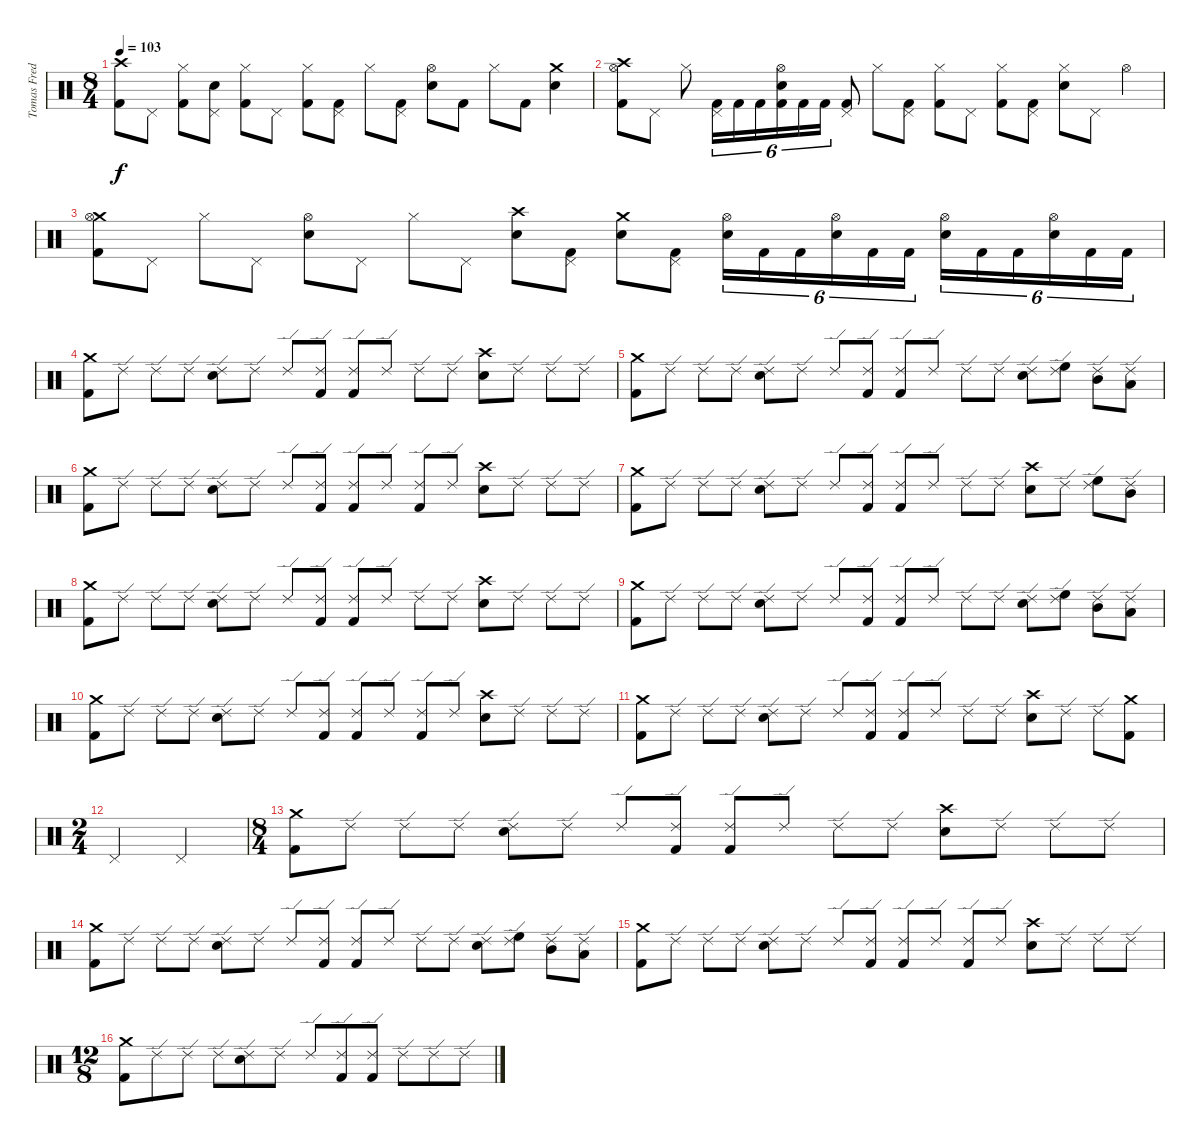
\track ("Tomas Fredén - drums  " "Tomas Fred") {instrument percussion}
\staff {score}
\articulation defaults
\ts (8 4)
\tempo 103
\clef neutral
\ks c
("Crash high (hit)" "Kick (hit) 2").8{dy f} "Pedal Hi-Hat (hit)".8 ("Hi-Hat (closed)" "Kick (hit) 2").8 ("Snare (hit) 2" "Pedal Hi-Hat (hit)").8 ("Hi-Hat (closed)" "Kick (hit) 2").8 "Pedal Hi-Hat (hit)".8 ("Hi-Hat (closed)" "Kick (hit) 2").8 ("Kick (hit) 2" "Pedal Hi-Hat (hit)").8 "Hi-Hat (closed)".8 ("Pedal Hi-Hat (hit)" "Kick (hit) 2").8 ("Hi-Hat (open)" "Snare (hit) 2").8 "Kick (hit) 2".8 "Hi-Hat (closed)".8 "Kick (hit) 2".8 ("Crash medium (hit)" "Snare (hit) 2").4 |
("Crash high (hit)" "Hi-Hat (open)" "Kick (hit) 2").8 "Pedal Hi-Hat (hit)".8 "Hi-Hat (closed)".8 ("Pedal Hi-Hat (hit)" "Kick (hit) 2").16{tu (6 4)} "Kick (hit) 2".16{tu (6 4)} "Kick (hit) 2".16{tu (6 4)} ("Hi-Hat (open)" "Snare (hit) 2" "Kick (hit) 2").16{tu (6 4)} "Kick (hit) 2".16{tu (6 4)} "Kick (hit) 2".16{tu (6 4)} ("Pedal Hi-Hat (hit)" "Kick (hit) 2").8 "Hi-Hat (closed)".8 ("Kick (hit) 2" "Pedal Hi-Hat (hit)").8 ("Hi-Hat (closed)" "Kick (hit) 2").8 "Pedal Hi-Hat (hit)".8 ("Hi-Hat (closed)" "Kick (hit) 2").8 ("Kick (hit) 2" "Pedal Hi-Hat (hit)").8 ("Hi-Hat (closed)" "Electric Snare (hit)").8 "Pedal Hi-Hat (hit)".8 "Hi-Hat (open)".4 |
("Crash medium (hit)" "Hi-Hat (open)" "Kick (hit) 2").8 "Pedal Hi-Hat (hit)".8 "Hi-Hat (closed)".8 "Pedal Hi-Hat (hit)".8 ("Hi-Hat (open)" "Snare (hit) 2").8 "Pedal Hi-Hat (hit)".8 "Hi-Hat (closed)".8 "Pedal Hi-Hat (hit)".8 ("Crash high (hit)" "Snare (hit) 2").8 ("Kick (hit) 2" "Pedal Hi-Hat (hit)").8 ("Crash medium (hit)" "Snare (hit) 2").8 ("Kick (hit) 2" "Pedal Hi-Hat (hit)").8 ("Hi-Hat (open)" "Snare (hit) 2").16{tu (6 4)} "Kick (hit) 2".16{tu (6 4)} "Kick (hit) 2".16{tu (6 4)} ("Hi-Hat (open)" "Snare (hit) 2").16{tu (6 4)} "Kick (hit) 2".16{tu (6 4)} "Kick (hit) 2".16{tu (6 4)} ("Hi-Hat (open)" "Snare (hit) 2").16{tu (6 4)} "Kick (hit) 2".16{tu (6 4)} "Kick (hit) 2".16{tu (6 4)} ("Hi-Hat (open)" "Snare (hit) 2").16{tu (6 4)} "Kick (hit) 2".16{tu (6 4)} "Kick (hit) 2".16{tu (6 4)} |
("Crash medium (hit)" "Kick (hit) 2").8 "Ride (edge) 2".8 "Ride (edge) 2".8 "Ride (edge) 2".8 ("Ride (edge) 2" "Snare (hit) 2").8 "Ride (edge) 2".8 "Ride (edge) 2".8 ("Ride (edge) 2" "Kick (hit) 2").8 ("Ride (edge) 2" "Kick (hit) 2").8 "Ride (edge) 2".8 "Ride (edge) 2".8 "Ride (edge) 2".8 ("Crash high (hit)" "Snare (hit) 2").8 "Ride (edge) 2".8 "Ride (edge) 2".8 "Ride (edge) 2".8 |
("Crash medium (hit)" "Kick (hit) 2").8 "Ride (edge) 2".8 "Ride (edge) 2".8 "Ride (edge) 2".8 ("Ride (edge) 2" "Snare (hit) 2").8 "Ride (edge) 2".8 "Ride (edge) 2".8 ("Ride (edge) 2" "Kick (hit) 2").8 ("Ride (edge) 2" "Kick (hit) 2").8 "Ride (edge) 2".8 "Ride (edge) 2".8 "Ride (edge) 2".8 ("Ride (edge) 2" "Snare (hit) 2").8 ("Ride (edge) 2" "High Floor Tom (hit)").8 ("Ride (edge) 2" "Mid Tom (hit)").8 ("Ride (edge) 2" "Low Tom (hit)").8 |
("Crash medium (hit)" "Kick (hit) 2").8 "Ride (edge) 2".8 "Ride (edge) 2".8 "Ride (edge) 2".8 ("Ride (edge) 2" "Snare (hit) 2").8 "Ride (edge) 2".8 "Ride (edge) 2".8 ("Ride (edge) 2" "Kick (hit) 2").8 ("Ride (edge) 2" "Kick (hit) 2").8 "Ride (edge) 2".8 ("Ride (edge) 2" "Kick (hit) 2").8 "Ride (edge) 2".8 ("Crash high (hit)" "Snare (hit) 2").8 "Ride (edge) 2".8 "Ride (edge) 2".8 "Ride (edge) 2".8 |
("Crash medium (hit)" "Kick (hit) 2").8 "Ride (edge) 2".8 "Ride (edge) 2".8 "Ride (edge) 2".8 ("Ride (edge) 2" "Snare (hit) 2").8 "Ride (edge) 2".8 "Ride (edge) 2".8 ("Ride (edge) 2" "Kick (hit) 2").8 ("Ride (edge) 2" "Kick (hit) 2").8 "Ride (edge) 2".8 "Ride (edge) 2".8 "Ride (edge) 2".8 ("Crash high (hit)" "Snare (hit) 2").8 "Ride (edge) 2".8 ("Ride (edge) 2" "High Floor Tom (hit)").8 ("Ride (edge) 2" "Mid Tom (hit)").8 |
("Crash medium (hit)" "Kick (hit) 2").8 "Ride (edge) 2".8 "Ride (edge) 2".8 "Ride (edge) 2".8 ("Ride (edge) 2" "Snare (hit) 2").8 "Ride (edge) 2".8 "Ride (edge) 2".8 ("Ride (edge) 2" "Kick (hit) 2").8 ("Ride (edge) 2" "Kick (hit) 2").8 "Ride (edge) 2".8 "Ride (edge) 2".8 "Ride (edge) 2".8 ("Crash high (hit)" "Snare (hit) 2").8 "Ride (edge) 2".8 "Ride (edge) 2".8 "Ride (edge) 2".8 |
("Crash medium (hit)" "Kick (hit) 2").8 "Ride (edge) 2".8 "Ride (edge) 2".8 "Ride (edge) 2".8 ("Ride (edge) 2" "Snare (hit) 2").8 "Ride (edge) 2".8 "Ride (edge) 2".8 ("Ride (edge) 2" "Kick (hit) 2").8 ("Ride (edge) 2" "Kick (hit) 2").8 "Ride (edge) 2".8 "Ride (edge) 2".8 "Ride (edge) 2".8 ("Ride (edge) 2" "Snare (hit) 2").8 ("Ride (edge) 2" "High Floor Tom (hit)").8 ("Ride (edge) 2" "Mid Tom (hit)").8 ("Ride (edge) 2" "Low Tom (hit)").8 |
("Crash medium (hit)" "Kick (hit) 2").8 "Ride (edge) 2".8 "Ride (edge) 2".8 "Ride (edge) 2".8 ("Ride (edge) 2" "Snare (hit) 2").8 "Ride (edge) 2".8 "Ride (edge) 2".8 ("Ride (edge) 2" "Kick (hit) 2").8 ("Ride (edge) 2" "Kick (hit) 2").8 "Ride (edge) 2".8 ("Ride (edge) 2" "Kick (hit) 2").8 "Ride (edge) 2".8 ("Crash high (hit)" "Snare (hit) 2").8 "Ride (edge) 2".8 "Ride (edge) 2".8 "Ride (edge) 2".8 |
("Crash medium (hit)" "Kick (hit) 2").8 "Ride (edge) 2".8 "Ride (edge) 2".8 "Ride (edge) 2".8 ("Ride (edge) 2" "Snare (hit) 2").8 "Ride (edge) 2".8 "Ride (edge) 2".8 ("Ride (edge) 2" "Kick (hit) 2").8 ("Ride (edge) 2" "Kick (hit) 2").8 "Ride (edge) 2".8 "Ride (edge) 2".8 "Ride (edge) 2".8 ("Crash high (hit)" "Snare (hit) 2").8 "Ride (edge) 2".8 "Ride (edge) 2".8 ("Crash medium (hit)" "Kick (hit) 2").8 |
\ts (2 4)
"Pedal Hi-Hat (hit)".4 "Pedal Hi-Hat (hit)".4 |
\ts (8 4)
("Crash medium (hit)" "Kick (hit) 2").8 "Ride (edge) 2".8 "Ride (edge) 2".8 "Ride (edge) 2".8 ("Ride (edge) 2" "Snare (hit) 2").8 "Ride (edge) 2".8 "Ride (edge) 2".8 ("Ride (edge) 2" "Kick (hit) 2").8 ("Ride (edge) 2" "Kick (hit) 2").8 "Ride (edge) 2".8 "Ride (edge) 2".8 "Ride (edge) 2".8 ("Crash high (hit)" "Snare (hit) 2").8 "Ride (edge) 2".8 "Ride (edge) 2".8 "Ride (edge) 2".8 |
("Crash medium (hit)" "Kick (hit) 2").8 "Ride (edge) 2".8 "Ride (edge) 2".8 "Ride (edge) 2".8 ("Ride (edge) 2" "Snare (hit) 2").8 "Ride (edge) 2".8 "Ride (edge) 2".8 ("Ride (edge) 2" "Kick (hit) 2").8 ("Ride (edge) 2" "Kick (hit) 2").8 "Ride (edge) 2".8 "Ride (edge) 2".8 "Ride (edge) 2".8 ("Ride (edge) 2" "Snare (hit) 2").8 ("Ride (edge) 2" "High Floor Tom (hit)").8 ("Ride (edge) 2" "Mid Tom (hit)").8 ("Ride (edge) 2" "Low Tom (hit)").8 |
("Crash medium (hit)" "Kick (hit) 2").8 "Ride (edge) 2".8 "Ride (edge) 2".8 "Ride (edge) 2".8 ("Ride (edge) 2" "Snare (hit) 2").8 "Ride (edge) 2".8 "Ride (edge) 2".8 ("Ride (edge) 2" "Kick (hit) 2").8 ("Ride (edge) 2" "Kick (hit) 2").8 "Ride (edge) 2".8 ("Ride (edge) 2" "Kick (hit) 2").8 "Ride (edge) 2".8 ("Crash high (hit)" "Snare (hit) 2").8 "Ride (edge) 2".8 "Ride (edge) 2".8 "Ride (edge) 2".8 |
\ts (12 8)
("Crash medium (hit)" "Kick (hit) 2").8 "Ride (edge) 2".8 "Ride (edge) 2".8 "Ride (edge) 2".8 ("Ride (edge) 2" "Snare (hit) 2").8 "Ride (edge) 2".8 "Ride (edge) 2".8 ("Ride (edge) 2" "Kick (hit) 2").8 ("Ride (edge) 2" "Kick (hit) 2").8 "Ride (edge) 2".8 "Ride (edge) 2".8 "Ride (edge) 2".8
